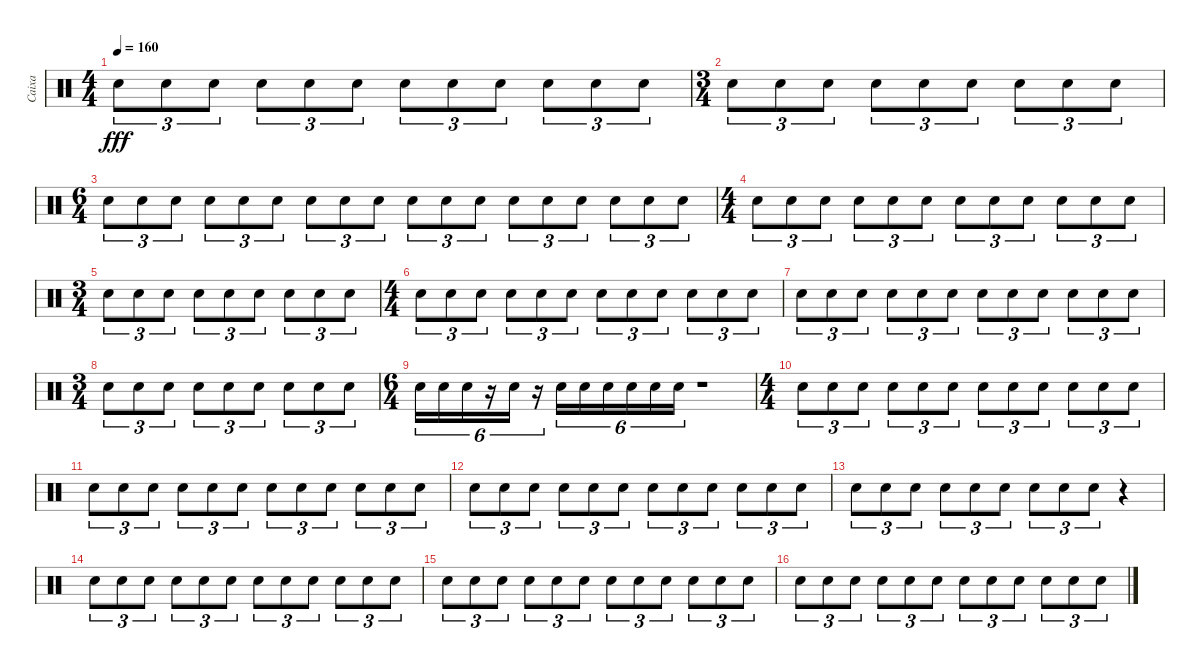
\track ("Caixa" "Caixa") {instrument percussion}
\staff {score}
\articulation defaults
\ts (4 4)
\tempo 160
\clef neutral
\ks c "Electric Snare (hit)".8{tu (3 2) dy fff} "Electric Snare (hit)".8{tu (3 2)} "Electric Snare (hit)".8{tu (3 2)} "Electric Snare (hit)".8{tu (3 2)} "Electric Snare (hit)".8{tu (3 2)} "Electric Snare (hit)".8{tu (3 2)} "Electric Snare (hit)".8{tu (3 2)} "Electric Snare (hit)".8{tu (3 2)} "Electric Snare (hit)".8{tu (3 2)} "Electric Snare (hit)".8{tu (3 2)} "Electric Snare (hit)".8{tu (3 2)} "Electric Snare (hit)".8{tu (3 2)}
|
\ts (3 4)
"Electric Snare (hit)".8{tu (3 2)} "Electric Snare (hit)".8{tu (3 2)} "Electric Snare (hit)".8{tu (3 2)} "Electric Snare (hit)".8{tu (3 2)} "Electric Snare (hit)".8{tu (3 2)} "Electric Snare (hit)".8{tu (3 2)} "Electric Snare (hit)".8{tu (3 2)} "Electric Snare (hit)".8{tu (3 2)} "Electric Snare (hit)".8{tu (3 2)} |
\ts (6 4)
"Electric Snare (hit)".8{tu (3 2)} "Electric Snare (hit)".8{tu (3 2)} "Electric Snare (hit)".8{tu (3 2)} "Electric Snare (hit)".8{tu (3 2)} "Electric Snare (hit)".8{tu (3 2)} "Electric Snare (hit)".8{tu (3 2)} "Electric Snare (hit)".8{tu (3 2)} "Electric Snare (hit)".8{tu (3 2)} "Electric Snare (hit)".8{tu (3 2)} "Electric Snare (hit)".8{tu (3 2)} "Electric Snare (hit)".8{tu (3 2)} "Electric Snare (hit)".8{tu (3 2)} "Electric Snare (hit)".8{tu (3 2)} "Electric Snare (hit)".8{tu (3 2)} "Electric Snare (hit)".8{tu (3 2)} "Electric Snare (hit)".8{tu (3 2)} "Electric Snare (hit)".8{tu (3 2)} "Electric Snare (hit)".8{tu (3 2)} |
\ts (4 4)
"Electric Snare (hit)".8{tu (3 2)} "Electric Snare (hit)".8{tu (3 2)} "Electric Snare (hit)".8{tu (3 2)} "Electric Snare (hit)".8{tu (3 2)} "Electric Snare (hit)".8{tu (3 2)} "Electric Snare (hit)".8{tu (3 2)} "Electric Snare (hit)".8{tu (3 2)} "Electric Snare (hit)".8{tu (3 2)} "Electric Snare (hit)".8{tu (3 2)} "Electric Snare (hit)".8{tu (3 2)} "Electric Snare (hit)".8{tu (3 2)} "Electric Snare (hit)".8{tu (3 2)} |
\ts (3 4)
"Electric Snare (hit)".8{tu (3 2)} "Electric Snare (hit)".8{tu (3 2)} "Electric Snare (hit)".8{tu (3 2)} "Electric Snare (hit)".8{tu (3 2)} "Electric Snare (hit)".8{tu (3 2)} "Electric Snare (hit)".8{tu (3 2)} "Electric Snare (hit)".8{tu (3 2)} "Electric Snare (hit)".8{tu (3 2)} "Electric Snare (hit)".8{tu (3 2)} |
\ts (4 4)
"Electric Snare (hit)".8{tu (3 2)} "Electric Snare (hit)".8{tu (3 2)} "Electric Snare (hit)".8{tu (3 2)} "Electric Snare (hit)".8{tu (3 2)} "Electric Snare (hit)".8{tu (3 2)} "Electric Snare (hit)".8{tu (3 2)} "Electric Snare (hit)".8{tu (3 2)} "Electric Snare (hit)".8{tu (3 2)} "Electric Snare (hit)".8{tu (3 2)} "Electric Snare (hit)".8{tu (3 2)} "Electric Snare (hit)".8{tu (3 2)} "Electric Snare (hit)".8{tu (3 2)} |
"Electric Snare (hit)".8{tu (3 2)} "Electric Snare (hit)".8{tu (3 2)} "Electric Snare (hit)".8{tu (3 2)} "Electric Snare (hit)".8{tu (3 2)} "Electric Snare (hit)".8{tu (3 2)} "Electric Snare (hit)".8{tu (3 2)} "Electric Snare (hit)".8{tu (3 2)} "Electric Snare (hit)".8{tu (3 2)} "Electric Snare (hit)".8{tu (3 2)} "Electric Snare (hit)".8{tu (3 2)} "Electric Snare (hit)".8{tu (3 2)} "Electric Snare (hit)".8{tu (3 2)} |
\ts (3 4)
"Electric Snare (hit)".8{tu (3 2)} "Electric Snare (hit)".8{tu (3 2)} "Electric Snare (hit)".8{tu (3 2)} "Electric Snare (hit)".8{tu (3 2)} "Electric Snare (hit)".8{tu (3 2)} "Electric Snare (hit)".8{tu (3 2)} "Electric Snare (hit)".8{tu (3 2)} "Electric Snare (hit)".8{tu (3 2)} "Electric Snare (hit)".8{tu (3 2)} |
\ts (6 4)
"Electric Snare (hit)".16{tu (6 4)} "Electric Snare (hit)".16{tu (6 4)} "Electric Snare (hit)".16{tu (6 4)} r.16{tu (6 4)} "Electric Snare (hit)".16{tu (6 4)} r.16{tu (6 4)} "Electric Snare (hit)".16{tu (6 4)} "Electric Snare (hit)".16{tu (6 4)} "Electric Snare (hit)".16{tu (6 4)} "Electric Snare (hit)".16{tu (6 4)} "Electric Snare (hit)".16{tu (6 4)} "Electric Snare (hit)".16{tu (6 4)} r.1 |
\ts (4 4)
"Electric Snare (hit)".8{tu (3 2)} "Electric Snare (hit)".8{tu (3 2)} "Electric Snare (hit)".8{tu (3 2)} "Electric Snare (hit)".8{tu (3 2)} "Electric Snare (hit)".8{tu (3 2)} "Electric Snare (hit)".8{tu (3 2)} "Electric Snare (hit)".8{tu (3 2)} "Electric Snare (hit)".8{tu (3 2)} "Electric Snare (hit)".8{tu (3 2)} "Electric Snare (hit)".8{tu (3 2)} "Electric Snare (hit)".8{tu (3 2)} "Electric Snare (hit)".8{tu (3 2)} |
"Electric Snare (hit)".8{tu (3 2)} "Electric Snare (hit)".8{tu (3 2)} "Electric Snare (hit)".8{tu (3 2)} "Electric Snare (hit)".8{tu (3 2)} "Electric Snare (hit)".8{tu (3 2)} "Electric Snare (hit)".8{tu (3 2)} "Electric Snare (hit)".8{tu (3 2)} "Electric Snare (hit)".8{tu (3 2)} "Electric Snare (hit)".8{tu (3 2)} "Electric Snare (hit)".8{tu (3 2)} "Electric Snare (hit)".8{tu (3 2)} "Electric Snare (hit)".8{tu (3 2)} |
"Electric Snare (hit)".8{tu (3 2)} "Electric Snare (hit)".8{tu (3 2)} "Electric Snare (hit)".8{tu (3 2)} "Electric Snare (hit)".8{tu (3 2)} "Electric Snare (hit)".8{tu (3 2)} "Electric Snare (hit)".8{tu (3 2)} "Electric Snare (hit)".8{tu (3 2)} "Electric Snare (hit)".8{tu (3 2)} "Electric Snare (hit)".8{tu (3 2)} "Electric Snare (hit)".8{tu (3 2)} "Electric Snare (hit)".8{tu (3 2)} "Electric Snare (hit)".8{tu (3 2)} |
"Electric Snare (hit)".8{tu (3 2)} "Electric Snare (hit)".8{tu (3 2)} "Electric Snare (hit)".8{tu (3 2)} "Electric Snare (hit)".8{tu (3 2)} "Electric Snare (hit)".8{tu (3 2)} "Electric Snare (hit)".8{tu (3 2)} "Electric Snare (hit)".8{tu (3 2)} "Electric Snare (hit)".8{tu (3 2)} "Electric Snare (hit)".8{tu (3 2)} r.4 |
"Electric Snare (hit)".8{tu (3 2)} "Electric Snare (hit)".8{tu (3 2)} "Electric Snare (hit)".8{tu (3 2)} "Electric Snare (hit)".8{tu (3 2)} "Electric Snare (hit)".8{tu (3 2)} "Electric Snare (hit)".8{tu (3 2)} "Electric Snare (hit)".8{tu (3 2)} "Electric Snare (hit)".8{tu (3 2)} "Electric Snare (hit)".8{tu (3 2)} "Electric Snare (hit)".8{tu (3 2)} "Electric Snare (hit)".8{tu (3 2)} "Electric Snare (hit)".8{tu (3 2)} |
"Electric Snare (hit)".8{tu (3 2)} "Electric Snare (hit)".8{tu (3 2)} "Electric Snare (hit)".8{tu (3 2)} "Electric Snare (hit)".8{tu (3 2)} "Electric Snare (hit)".8{tu (3 2)} "Electric Snare (hit)".8{tu (3 2)} "Electric Snare (hit)".8{tu (3 2)} "Electric Snare (hit)".8{tu (3 2)} "Electric Snare (hit)".8{tu (3 2)} "Electric Snare (hit)".8{tu (3 2)} "Electric Snare (hit)".8{tu (3 2)} "Electric Snare (hit)".8{tu (3 2)} |
"Electric Snare (hit)".8{tu (3 2)} "Electric Snare (hit)".8{tu (3 2)} "Electric Snare (hit)".8{tu (3 2)} "Electric Snare (hit)".8{tu (3 2)} "Electric Snare (hit)".8{tu (3 2)} "Electric Snare (hit)".8{tu (3 2)} "Electric Snare (hit)".8{tu (3 2)} "Electric Snare (hit)".8{tu (3 2)} "Electric Snare (hit)".8{tu (3 2)} "Electric Snare (hit)".8{tu (3 2)} "Electric Snare (hit)".8{tu (3 2)} "Electric Snare (hit)".8{tu (3 2)}
